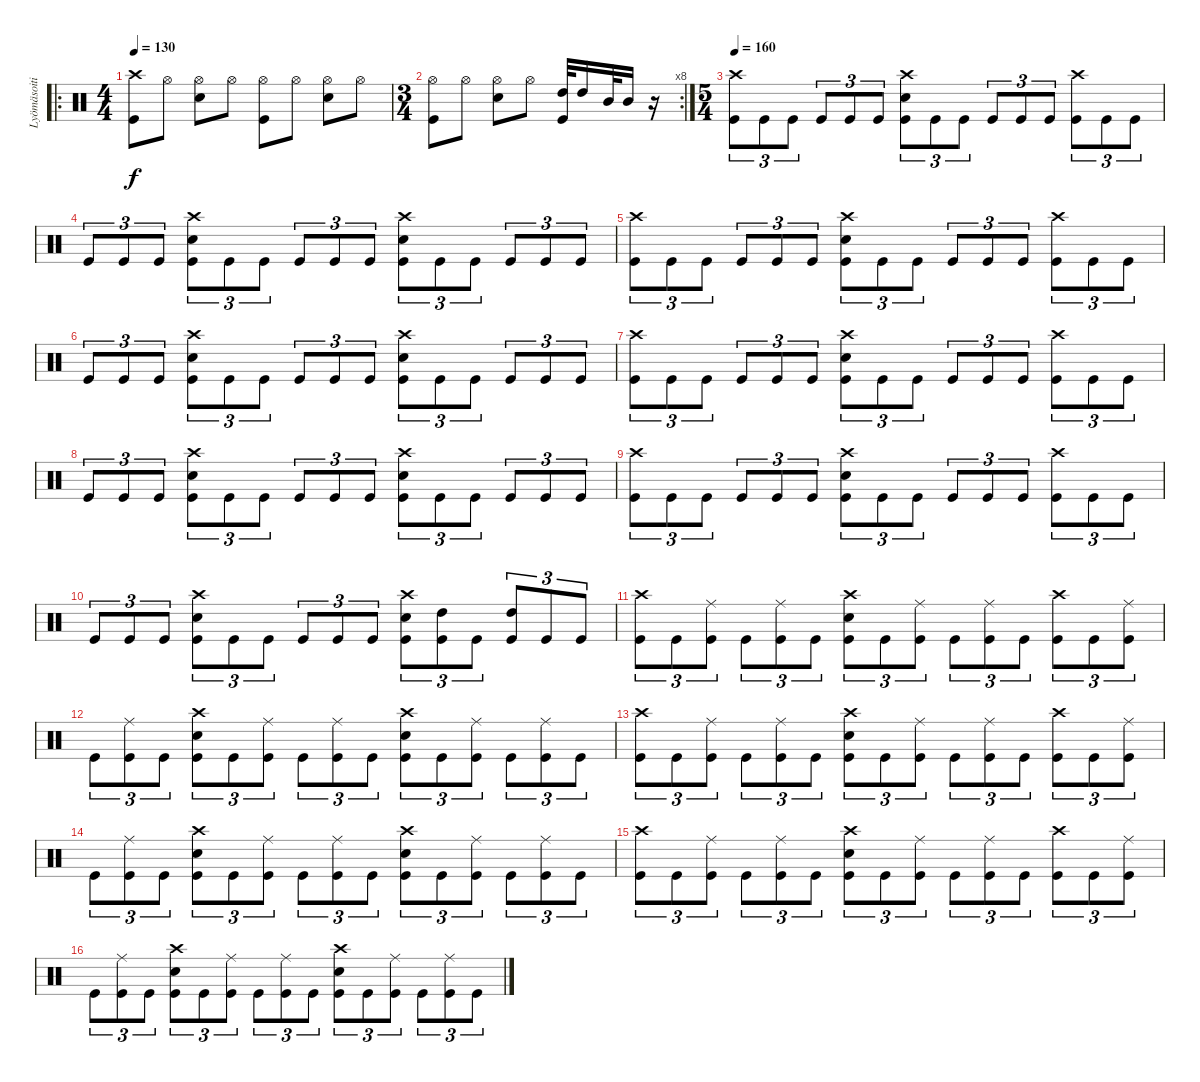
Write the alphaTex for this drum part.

\track ("Lyömäsoitin" "Lyömäsoiti") {instrument percussion}
\staff {score}
\articulation defaults
\ro
\ts (4 4)
\tempo 130
\clef neutral
\ks c
("Crash high (hit)" "Kick (hit)").8{dy f} "Hi-Hat (open)".8 ("Hi-Hat (open)" "Snare (hit) 2").8 "Hi-Hat (open)".8 ("Hi-Hat (open)" "Kick (hit)").8 "Hi-Hat (open)".8 ("Hi-Hat (open)" "Snare (hit) 2").8 "Hi-Hat (open)".8 |
\rc 8
\ts (3 4)
("Hi-Hat (open)" "Kick (hit)").8 "Hi-Hat (open)".8 ("Hi-Hat (open)" "Snare (hit) 2").8 "Hi-Hat (open)".8 ("High Tom (hit)" "Kick (hit)").32 "High Tom (hit)".16 "Mid Tom (hit)".32 "Mid Tom (hit)".16 r.16 |
\ts (5 4)
\tempo 160
("Crash high (hit)" "Kick (hit)").8{tu (3 2)} "Kick (hit)".8{tu (3 2)} "Kick (hit)".8{tu (3 2)} "Kick (hit)".8{tu (3 2)} "Kick (hit)".8{tu (3 2)} "Kick (hit)".8{tu (3 2)} ("Crash high (hit)" "Snare (hit) 2" "Kick (hit)").8{tu (3 2)} "Kick (hit)".8{tu (3 2)} "Kick (hit)".8{tu (3 2)} "Kick (hit)".8{tu (3 2)} "Kick (hit)".8{tu (3 2)} "Kick (hit)".8{tu (3 2)} ("Crash high (hit)" "Kick (hit)").8{tu (3 2)} "Kick (hit)".8{tu (3 2)} "Kick (hit)".8{tu (3 2)} |
"Kick (hit)".8{tu (3 2)} "Kick (hit)".8{tu (3 2)} "Kick (hit)".8{tu (3 2)} ("Crash high (hit)" "Snare (hit) 2" "Kick (hit)").8{tu (3 2)} "Kick (hit)".8{tu (3 2)} "Kick (hit)".8{tu (3 2)} "Kick (hit)".8{tu (3 2)} "Kick (hit)".8{tu (3 2)} "Kick (hit)".8{tu (3 2)} ("Crash high (hit)" "Snare (hit) 2" "Kick (hit)").8{tu (3 2)} "Kick (hit)".8{tu (3 2)} "Kick (hit)".8{tu (3 2)} "Kick (hit)".8{tu (3 2)} "Kick (hit)".8{tu (3 2)} "Kick (hit)".8{tu (3 2)} |
("Crash high (hit)" "Kick (hit)").8{tu (3 2)} "Kick (hit)".8{tu (3 2)} "Kick (hit)".8{tu (3 2)} "Kick (hit)".8{tu (3 2)} "Kick (hit)".8{tu (3 2)} "Kick (hit)".8{tu (3 2)} ("Crash high (hit)" "Snare (hit) 2" "Kick (hit)").8{tu (3 2)} "Kick (hit)".8{tu (3 2)} "Kick (hit)".8{tu (3 2)} "Kick (hit)".8{tu (3 2)} "Kick (hit)".8{tu (3 2)} "Kick (hit)".8{tu (3 2)} ("Crash high (hit)" "Kick (hit)").8{tu (3 2)} "Kick (hit)".8{tu (3 2)} "Kick (hit)".8{tu (3 2)} |
"Kick (hit)".8{tu (3 2)} "Kick (hit)".8{tu (3 2)} "Kick (hit)".8{tu (3 2)} ("Crash high (hit)" "Snare (hit) 2" "Kick (hit)").8{tu (3 2)} "Kick (hit)".8{tu (3 2)} "Kick (hit)".8{tu (3 2)} "Kick (hit)".8{tu (3 2)} "Kick (hit)".8{tu (3 2)} "Kick (hit)".8{tu (3 2)} ("Crash high (hit)" "Snare (hit) 2" "Kick (hit)").8{tu (3 2)} "Kick (hit)".8{tu (3 2)} "Kick (hit)".8{tu (3 2)} "Kick (hit)".8{tu (3 2)} "Kick (hit)".8{tu (3 2)} "Kick (hit)".8{tu (3 2)} |
("Crash high (hit)" "Kick (hit)").8{tu (3 2)} "Kick (hit)".8{tu (3 2)} "Kick (hit)".8{tu (3 2)} "Kick (hit)".8{tu (3 2)} "Kick (hit)".8{tu (3 2)} "Kick (hit)".8{tu (3 2)} ("Crash high (hit)" "Snare (hit) 2" "Kick (hit)").8{tu (3 2)} "Kick (hit)".8{tu (3 2)} "Kick (hit)".8{tu (3 2)} "Kick (hit)".8{tu (3 2)} "Kick (hit)".8{tu (3 2)} "Kick (hit)".8{tu (3 2)} ("Crash high (hit)" "Kick (hit)").8{tu (3 2)} "Kick (hit)".8{tu (3 2)} "Kick (hit)".8{tu (3 2)} |
"Kick (hit)".8{tu (3 2)} "Kick (hit)".8{tu (3 2)} "Kick (hit)".8{tu (3 2)} ("Crash high (hit)" "Snare (hit) 2" "Kick (hit)").8{tu (3 2)} "Kick (hit)".8{tu (3 2)} "Kick (hit)".8{tu (3 2)} "Kick (hit)".8{tu (3 2)} "Kick (hit)".8{tu (3 2)} "Kick (hit)".8{tu (3 2)} ("Crash high (hit)" "Snare (hit) 2" "Kick (hit)").8{tu (3 2)} "Kick (hit)".8{tu (3 2)} "Kick (hit)".8{tu (3 2)} "Kick (hit)".8{tu (3 2)} "Kick (hit)".8{tu (3 2)} "Kick (hit)".8{tu (3 2)} |
("Crash high (hit)" "Kick (hit)").8{tu (3 2)} "Kick (hit)".8{tu (3 2)} "Kick (hit)".8{tu (3 2)} "Kick (hit)".8{tu (3 2)} "Kick (hit)".8{tu (3 2)} "Kick (hit)".8{tu (3 2)} ("Crash high (hit)" "Snare (hit) 2" "Kick (hit)").8{tu (3 2)} "Kick (hit)".8{tu (3 2)} "Kick (hit)".8{tu (3 2)} "Kick (hit)".8{tu (3 2)} "Kick (hit)".8{tu (3 2)} "Kick (hit)".8{tu (3 2)} ("Crash high (hit)" "Kick (hit)").8{tu (3 2)} "Kick (hit)".8{tu (3 2)} "Kick (hit)".8{tu (3 2)} |
"Kick (hit)".8{tu (3 2)} "Kick (hit)".8{tu (3 2)} "Kick (hit)".8{tu (3 2)} ("Crash high (hit)" "Snare (hit) 2" "Kick (hit)").8{tu (3 2)} "Kick (hit)".8{tu (3 2)} "Kick (hit)".8{tu (3 2)} "Kick (hit)".8{tu (3 2)} "Kick (hit)".8{tu (3 2)} "Kick (hit)".8{tu (3 2)} ("Crash high (hit)" "Snare (hit) 2" "Kick (hit)").8{tu (3 2)} ("High Tom (hit)" "Kick (hit)").8{tu (3 2)} "Kick (hit)".8{tu (3 2)} ("High Tom (hit)" "Kick (hit)").8{tu (3 2)} "Kick (hit)".8{tu (3 2)} "Kick (hit)".8{tu (3 2)} |
("Crash high (hit)" "Kick (hit)").8{tu (3 2)} "Kick (hit)".8{tu (3 2)} ("Ride (middle)" "Kick (hit)").8{tu (3 2)} "Kick (hit)".8{tu (3 2)} ("Ride (middle)" "Kick (hit)").8{tu (3 2)} "Kick (hit)".8{tu (3 2)} ("Crash high (hit)" "Snare (hit) 2" "Kick (hit)").8{tu (3 2)} "Kick (hit)".8{tu (3 2)} ("Ride (middle)" "Kick (hit)").8{tu (3 2)} "Kick (hit)".8{tu (3 2)} ("Ride (middle)" "Kick (hit)").8{tu (3 2)} "Kick (hit)".8{tu (3 2)} ("Crash high (hit)" "Kick (hit)").8{tu (3 2)} "Kick (hit)".8{tu (3 2)} ("Ride (middle)" "Kick (hit)").8{tu (3 2)} |
"Kick (hit)".8{tu (3 2)} ("Ride (middle)" "Kick (hit)").8{tu (3 2)} "Kick (hit)".8{tu (3 2)} ("Crash high (hit)" "Snare (hit) 2" "Kick (hit)").8{tu (3 2)} "Kick (hit)".8{tu (3 2)} ("Ride (middle)" "Kick (hit)").8{tu (3 2)} "Kick (hit)".8{tu (3 2)} ("Ride (middle)" "Kick (hit)").8{tu (3 2)} "Kick (hit)".8{tu (3 2)} ("Crash high (hit)" "Snare (hit) 2" "Kick (hit)").8{tu (3 2)} "Kick (hit)".8{tu (3 2)} ("Ride (middle)" "Kick (hit)").8{tu (3 2)} "Kick (hit)".8{tu (3 2)} ("Ride (middle)" "Kick (hit)").8{tu (3 2)} "Kick (hit)".8{tu (3 2)} |
("Crash high (hit)" "Kick (hit)").8{tu (3 2)} "Kick (hit)".8{tu (3 2)} ("Ride (middle)" "Kick (hit)").8{tu (3 2)} "Kick (hit)".8{tu (3 2)} ("Ride (middle)" "Kick (hit)").8{tu (3 2)} "Kick (hit)".8{tu (3 2)} ("Crash high (hit)" "Snare (hit) 2" "Kick (hit)").8{tu (3 2)} "Kick (hit)".8{tu (3 2)} ("Ride (middle)" "Kick (hit)").8{tu (3 2)} "Kick (hit)".8{tu (3 2)} ("Ride (middle)" "Kick (hit)").8{tu (3 2)} "Kick (hit)".8{tu (3 2)} ("Crash high (hit)" "Kick (hit)").8{tu (3 2)} "Kick (hit)".8{tu (3 2)} ("Ride (middle)" "Kick (hit)").8{tu (3 2)} |
"Kick (hit)".8{tu (3 2)} ("Ride (middle)" "Kick (hit)").8{tu (3 2)} "Kick (hit)".8{tu (3 2)} ("Crash high (hit)" "Snare (hit) 2" "Kick (hit)").8{tu (3 2)} "Kick (hit)".8{tu (3 2)} ("Ride (middle)" "Kick (hit)").8{tu (3 2)} "Kick (hit)".8{tu (3 2)} ("Ride (middle)" "Kick (hit)").8{tu (3 2)} "Kick (hit)".8{tu (3 2)} ("Crash high (hit)" "Snare (hit) 2" "Kick (hit)").8{tu (3 2)} "Kick (hit)".8{tu (3 2)} ("Ride (middle)" "Kick (hit)").8{tu (3 2)} "Kick (hit)".8{tu (3 2)} ("Ride (middle)" "Kick (hit)").8{tu (3 2)} "Kick (hit)".8{tu (3 2)} |
("Crash high (hit)" "Kick (hit)").8{tu (3 2)} "Kick (hit)".8{tu (3 2)} ("Ride (middle)" "Kick (hit)").8{tu (3 2)} "Kick (hit)".8{tu (3 2)} ("Ride (middle)" "Kick (hit)").8{tu (3 2)} "Kick (hit)".8{tu (3 2)} ("Crash high (hit)" "Snare (hit) 2" "Kick (hit)").8{tu (3 2)} "Kick (hit)".8{tu (3 2)} ("Ride (middle)" "Kick (hit)").8{tu (3 2)} "Kick (hit)".8{tu (3 2)} ("Ride (middle)" "Kick (hit)").8{tu (3 2)} "Kick (hit)".8{tu (3 2)} ("Crash high (hit)" "Kick (hit)").8{tu (3 2)} "Kick (hit)".8{tu (3 2)} ("Ride (middle)" "Kick (hit)").8{tu (3 2)} |
"Kick (hit)".8{tu (3 2)} ("Ride (middle)" "Kick (hit)").8{tu (3 2)} "Kick (hit)".8{tu (3 2)} ("Crash high (hit)" "Snare (hit) 2" "Kick (hit)").8{tu (3 2)} "Kick (hit)".8{tu (3 2)} ("Ride (middle)" "Kick (hit)").8{tu (3 2)} "Kick (hit)".8{tu (3 2)} ("Ride (middle)" "Kick (hit)").8{tu (3 2)} "Kick (hit)".8{tu (3 2)} ("Crash high (hit)" "Snare (hit) 2" "Kick (hit)").8{tu (3 2)} "Kick (hit)".8{tu (3 2)} ("Ride (middle)" "Kick (hit)").8{tu (3 2)} "Kick (hit)".8{tu (3 2)} ("Ride (middle)" "Kick (hit)").8{tu (3 2)} "Kick (hit)".8{tu (3 2)}
